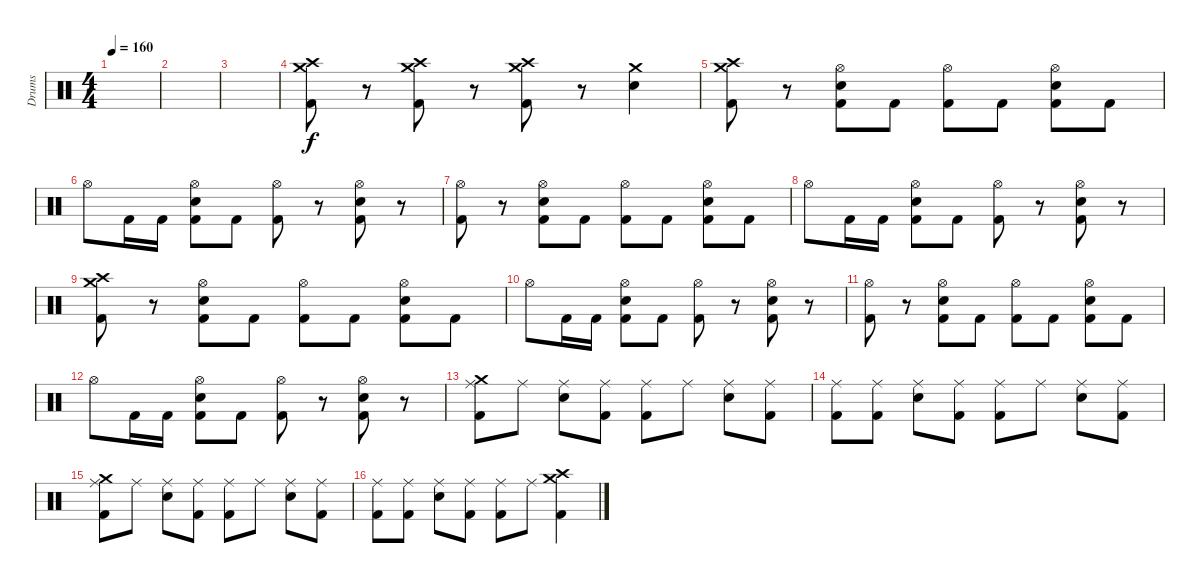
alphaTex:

\track ("Drums" "Drums") {instrument percussion}
\staff {score}
\articulation defaults
\ts (4 4)
\tempo 160
\clef neutral
\ks c
|
|
|
("Crash high (hit)" "Crash medium (hit)" "Kick (hit) 2").8 r.8 ("Crash high (hit)" "Crash medium (hit)" "Kick (hit) 2").8 r.8 ("Crash high (hit)" "Crash medium (hit)" "Kick (hit) 2").8 r.8 ("Crash medium (hit)" "Snare (hit) 2").4 |
("Crash medium (hit)" "Crash high (hit)" "Kick (hit) 2").8 r.8 ("Hi-Hat (open)" "Snare (hit) 2" "Kick (hit) 2").8 "Kick (hit) 2".8 ("Hi-Hat (open)" "Kick (hit) 2").8 "Kick (hit) 2".8 ("Hi-Hat (open)" "Snare (hit) 2" "Kick (hit) 2").8 "Kick (hit) 2".8 |
"Hi-Hat (open)".8 "Kick (hit) 2".16 "Kick (hit) 2".16 ("Hi-Hat (open)" "Snare (hit) 2" "Kick (hit) 2").8 "Kick (hit) 2".8 ("Hi-Hat (open)" "Kick (hit) 2").8 r.8 ("Hi-Hat (open)" "Snare (hit) 2" "Kick (hit) 2").8 r.8 |
("Hi-Hat (open)" "Kick (hit) 2").8 r.8 ("Hi-Hat (open)" "Snare (hit) 2" "Kick (hit) 2").8 "Kick (hit) 2".8 ("Hi-Hat (open)" "Kick (hit) 2").8 "Kick (hit) 2".8 ("Hi-Hat (open)" "Snare (hit) 2" "Kick (hit) 2").8 "Kick (hit) 2".8 |
"Hi-Hat (open)".8 "Kick (hit) 2".16 "Kick (hit) 2".16 ("Hi-Hat (open)" "Snare (hit) 2" "Kick (hit) 2").8 "Kick (hit) 2".8 ("Hi-Hat (open)" "Kick (hit) 2").8 r.8 ("Hi-Hat (open)" "Snare (hit) 2" "Kick (hit) 2").8 r.8 |
("Crash medium (hit)" "Crash high (hit)" "Kick (hit) 2").8 r.8 ("Hi-Hat (open)" "Snare (hit) 2" "Kick (hit) 2").8 "Kick (hit) 2".8 ("Hi-Hat (open)" "Kick (hit) 2").8 "Kick (hit) 2".8 ("Hi-Hat (open)" "Snare (hit) 2" "Kick (hit) 2").8 "Kick (hit) 2".8 |
"Hi-Hat (open)".8 "Kick (hit) 2".16 "Kick (hit) 2".16 ("Hi-Hat (open)" "Snare (hit) 2" "Kick (hit) 2").8 "Kick (hit) 2".8 ("Hi-Hat (open)" "Kick (hit) 2").8 r.8 ("Hi-Hat (open)" "Snare (hit) 2" "Kick (hit) 2").8 r.8 |
("Hi-Hat (open)" "Kick (hit) 2").8 r.8 ("Hi-Hat (open)" "Snare (hit) 2" "Kick (hit) 2").8 "Kick (hit) 2".8 ("Hi-Hat (open)" "Kick (hit) 2").8 "Kick (hit) 2".8 ("Hi-Hat (open)" "Snare (hit) 2" "Kick (hit) 2").8 "Kick (hit) 2".8 |
"Hi-Hat (open)".8 "Kick (hit) 2".16 "Kick (hit) 2".16 ("Hi-Hat (open)" "Snare (hit) 2" "Kick (hit) 2").8 "Kick (hit) 2".8 ("Hi-Hat (open)" "Kick (hit) 2").8 r.8 ("Hi-Hat (open)" "Snare (hit) 2" "Kick (hit) 2").8 r.8 |
("Ride (middle)" "Crash medium (hit)" "Kick (hit) 2").8 "Ride (middle)".8 ("Ride (middle)" "Snare (hit) 2").8 ("Ride (middle)" "Kick (hit) 2").8 ("Ride (middle)" "Kick (hit) 2").8 "Ride (middle)".8 ("Ride (middle)" "Snare (hit) 2").8 ("Ride (middle)" "Kick (hit) 2").8 |
("Ride (middle)" "Kick (hit) 2").8 ("Ride (middle)" "Kick (hit) 2").8 ("Ride (middle)" "Snare (hit) 2").8 ("Ride (middle)" "Kick (hit) 2").8 ("Ride (middle)" "Kick (hit) 2").8 "Ride (middle)".8 ("Ride (middle)" "Snare (hit) 2").8 ("Ride (middle)" "Kick (hit) 2").8 |
("Ride (middle)" "Crash medium (hit)" "Kick (hit) 2").8 "Ride (middle)".8 ("Ride (middle)" "Snare (hit) 2").8 ("Ride (middle)" "Kick (hit) 2").8 ("Ride (middle)" "Kick (hit) 2").8 "Ride (middle)".8 ("Ride (middle)" "Snare (hit) 2").8 ("Ride (middle)" "Kick (hit) 2").8 |
("Ride (middle)" "Kick (hit) 2").8 ("Ride (middle)" "Kick (hit) 2").8 ("Ride (middle)" "Snare (hit) 2").8 ("Ride (middle)" "Kick (hit) 2").8 ("Ride (middle)" "Kick (hit) 2").8 "Ride (middle)".8 ("Crash medium (hit)" "Crash high (hit)" "Kick (hit) 2").4
